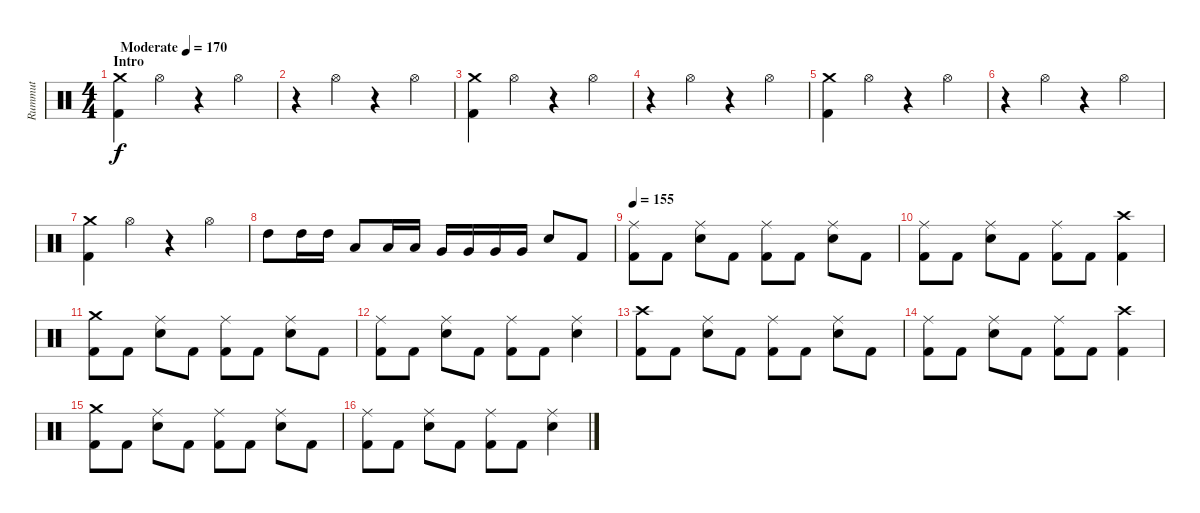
\track ("Rummut" "Rummut") {instrument percussion}
\staff {score}
\articulation defaults
\ts (4 4)
\section ("" "Intro")
\tempo (170 "Moderate")
\clef neutral
\ks c
("Crash medium (hit)" "Kick (hit) 2").4{dy f} "Hi-Hat (open)".4 r.4 "Hi-Hat (open)".4 |
r.4 "Hi-Hat (open)".4 r.4 "Hi-Hat (open)".4 |
("Crash medium (hit)" "Kick (hit) 2").4 "Hi-Hat (open)".4 r.4 "Hi-Hat (open)".4 |
r.4 "Hi-Hat (open)".4 r.4 "Hi-Hat (open)".4 |
("Crash medium (hit)" "Kick (hit) 2").4 "Hi-Hat (open)".4 r.4 "Hi-Hat (open)".4 |
r.4 "Hi-Hat (open)".4 r.4 "Hi-Hat (open)".4 |
("Crash medium (hit)" "Kick (hit) 2").4 "Hi-Hat (open)".4 r.4 "Hi-Hat (open)".4 |
"High Tom (hit)".8 "High Tom (hit)".16 "High Tom (hit)".16 "Low Tom (hit)".8 "Low Tom (hit)".16 "Low Tom (hit)".16 "Very Low Tom (hit)".16 "Very Low Tom (hit)".16 "Very Low Tom (hit)".16 "Very Low Tom (hit)".16 "Electric Snare (hit)".8 "Kick (hit) 2".8 |
\tempo 155
("Ride (middle)" "Kick (hit) 2").8 "Kick (hit) 2".8 ("Ride (middle)" "Electric Snare (hit)").8 "Kick (hit) 2".8 ("Ride (middle)" "Kick (hit) 2").8 "Kick (hit) 2".8 ("Ride (middle)" "Electric Snare (hit)").8 "Kick (hit) 2".8 |
("Ride (middle)" "Kick (hit) 2").8 "Kick (hit) 2".8 ("Ride (middle)" "Electric Snare (hit)").8 "Kick (hit) 2".8 ("Ride (middle)" "Kick (hit) 2").8 "Kick (hit) 2".8 ("Crash high (hit)" "Kick (hit) 2").4 |
("Crash medium (hit)" "Kick (hit) 2").8 "Kick (hit) 2".8 ("Ride (middle)" "Electric Snare (hit)").8 "Kick (hit) 2".8 ("Ride (middle)" "Kick (hit) 2").8 "Kick (hit) 2".8 ("Ride (middle)" "Electric Snare (hit)").8 "Kick (hit) 2".8 |
("Ride (middle)" "Kick (hit) 2").8 "Kick (hit) 2".8 ("Ride (middle)" "Electric Snare (hit)").8 "Kick (hit) 2".8 ("Ride (middle)" "Kick (hit) 2").8 "Kick (hit) 2".8 ("Ride (middle)" "Electric Snare (hit)").4 |
("Crash high (hit)" "Kick (hit) 2").8 "Kick (hit) 2".8 ("Ride (middle)" "Electric Snare (hit)").8 "Kick (hit) 2".8 ("Ride (middle)" "Kick (hit) 2").8 "Kick (hit) 2".8 ("Ride (middle)" "Electric Snare (hit)").8 "Kick (hit) 2".8 |
("Ride (middle)" "Kick (hit) 2").8 "Kick (hit) 2".8 ("Ride (middle)" "Electric Snare (hit)").8 "Kick (hit) 2".8 ("Ride (middle)" "Kick (hit) 2").8 "Kick (hit) 2".8 ("Crash high (hit)" "Kick (hit) 2").4 |
("Crash medium (hit)" "Kick (hit) 2").8 "Kick (hit) 2".8 ("Ride (middle)" "Electric Snare (hit)").8 "Kick (hit) 2".8 ("Ride (middle)" "Kick (hit) 2").8 "Kick (hit) 2".8 ("Ride (middle)" "Electric Snare (hit)").8 "Kick (hit) 2".8 |
("Ride (middle)" "Kick (hit) 2").8 "Kick (hit) 2".8 ("Ride (middle)" "Electric Snare (hit)").8 "Kick (hit) 2".8 ("Ride (middle)" "Kick (hit) 2").8 "Kick (hit) 2".8 ("Ride (middle)" "Electric Snare (hit)").4
